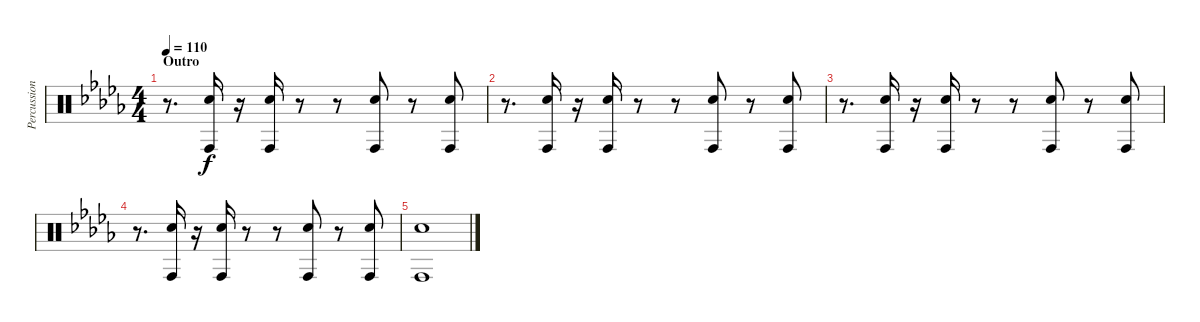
\track ("Percussions" "Percussion") {instrument percussion}
\staff {score}
\articulation defaults
\ts (4 4)
\section ("" "Outro")
\tempo 110
\clef neutral
\ks bbminor
r.8{d dy f} ("Conga high (hit)" "Hand Clap (hit)").16 r.16 ("Conga high (hit)" "Hand Clap (hit)").16 r.8 r.8 ("Conga high (hit)" "Hand Clap (hit)").8 r.8 ("Conga high (hit)" "Hand Clap (hit)").8 |
r.8{d} ("Conga high (hit)" "Hand Clap (hit)").16 r.16 ("Conga high (hit)" "Hand Clap (hit)").16 r.8 r.8 ("Conga high (hit)" "Hand Clap (hit)").8 r.8 ("Conga high (hit)" "Hand Clap (hit)").8 |
r.8{d} ("Conga high (hit)" "Hand Clap (hit)").16 r.16 ("Conga high (hit)" "Hand Clap (hit)").16 r.8 r.8 ("Conga high (hit)" "Hand Clap (hit)").8 r.8 ("Conga high (hit)" "Hand Clap (hit)").8 |
r.8{d} ("Conga high (hit)" "Hand Clap (hit)").16 r.16 ("Conga high (hit)" "Hand Clap (hit)").16 r.8 r.8 ("Conga high (hit)" "Hand Clap (hit)").8 r.8 ("Conga high (hit)" "Hand Clap (hit)").8 |
("Conga high (hit)" "Hand Clap (hit)").1
